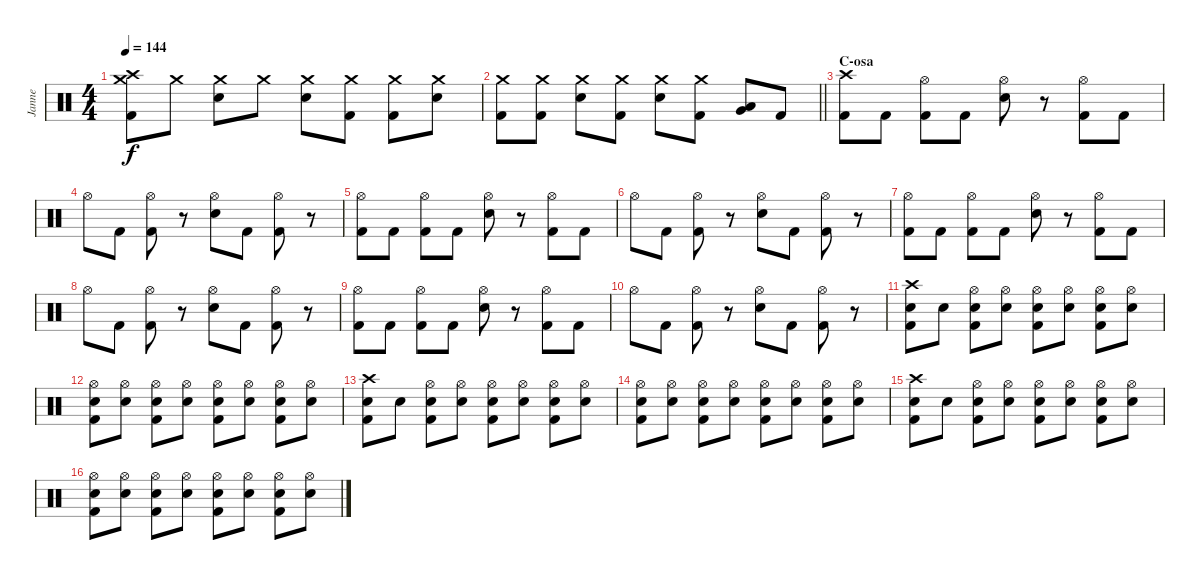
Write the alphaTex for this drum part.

\track ("Janne" "Janne") {instrument percussion}
\staff {score}
\articulation defaults
\ts (4 4)
\tempo 144
\clef neutral
\ks c
("Crash medium (hit)" "Crash high (hit)" "Kick (hit) 2").8{dy f} "Crash medium (hit)".8 ("Crash medium (hit)" "Electric Snare (hit)").8 "Crash medium (hit)".8 ("Crash medium (hit)" "Electric Snare (hit)").8 ("Crash medium (hit)" "Kick (hit) 2").8 ("Crash medium (hit)" "Kick (hit) 2").8 ("Crash medium (hit)" "Electric Snare (hit)").8 |
\barLineRight lightlight
("Crash medium (hit)" "Kick (hit) 2").8 ("Crash medium (hit)" "Kick (hit) 2").8 ("Crash medium (hit)" "Electric Snare (hit)").8 ("Crash medium (hit)" "Kick (hit) 2").8 ("Crash medium (hit)" "Electric Snare (hit)").8 ("Crash medium (hit)" "Kick (hit) 2").8 ("Very Low Tom (hit)" "Low Floor Tom (hit)").8 "Kick (hit) 2".8 |
\section ("" "C-osa")
("Crash high (hit)" "Kick (hit) 2").8 "Kick (hit) 2".8 ("Hi-Hat (open)" "Kick (hit) 2").8 "Kick (hit) 2".8 ("Hi-Hat (open)" "Electric Snare (hit)").8 r.8 ("Hi-Hat (open)" "Kick (hit) 2").8 "Kick (hit) 2".8 |
"Hi-Hat (open)".8 "Kick (hit) 2".8 ("Hi-Hat (open)" "Kick (hit) 2").8 r.8 ("Hi-Hat (open)" "Electric Snare (hit)").8 "Kick (hit) 2".8 ("Hi-Hat (open)" "Kick (hit) 2").8 r.8 |
("Hi-Hat (open)" "Kick (hit) 2").8 "Kick (hit) 2".8 ("Hi-Hat (open)" "Kick (hit) 2").8 "Kick (hit) 2".8 ("Hi-Hat (open)" "Electric Snare (hit)").8 r.8 ("Hi-Hat (open)" "Kick (hit) 2").8 "Kick (hit) 2".8 |
"Hi-Hat (open)".8 "Kick (hit) 2".8 ("Hi-Hat (open)" "Kick (hit) 2").8 r.8 ("Hi-Hat (open)" "Electric Snare (hit)").8 "Kick (hit) 2".8 ("Hi-Hat (open)" "Kick (hit) 2").8 r.8 |
("Hi-Hat (open)" "Kick (hit) 2").8 "Kick (hit) 2".8 ("Hi-Hat (open)" "Kick (hit) 2").8 "Kick (hit) 2".8 ("Hi-Hat (open)" "Electric Snare (hit)").8 r.8 ("Hi-Hat (open)" "Kick (hit) 2").8 "Kick (hit) 2".8 |
"Hi-Hat (open)".8 "Kick (hit) 2".8 ("Hi-Hat (open)" "Kick (hit) 2").8 r.8 ("Hi-Hat (open)" "Electric Snare (hit)").8 "Kick (hit) 2".8 ("Hi-Hat (open)" "Kick (hit) 2").8 r.8 |
("Hi-Hat (open)" "Kick (hit) 2").8 "Kick (hit) 2".8 ("Hi-Hat (open)" "Kick (hit) 2").8 "Kick (hit) 2".8 ("Hi-Hat (open)" "Electric Snare (hit)").8 r.8 ("Hi-Hat (open)" "Kick (hit) 2").8 "Kick (hit) 2".8 |
"Hi-Hat (open)".8 "Kick (hit) 2".8 ("Hi-Hat (open)" "Kick (hit) 2").8 r.8 ("Hi-Hat (open)" "Electric Snare (hit)").8 "Kick (hit) 2".8 ("Hi-Hat (open)" "Kick (hit) 2").8 r.8 |
("Crash high (hit)" "Electric Snare (hit)" "Kick (hit) 2").8 "Electric Snare (hit)".8 ("Hi-Hat (open)" "Electric Snare (hit)" "Kick (hit) 2").8 ("Hi-Hat (open)" "Electric Snare (hit)").8 ("Hi-Hat (open)" "Electric Snare (hit)" "Kick (hit) 2").8 ("Hi-Hat (open)" "Electric Snare (hit)").8 ("Hi-Hat (open)" "Electric Snare (hit)" "Kick (hit) 2").8 ("Hi-Hat (open)" "Electric Snare (hit)").8 |
("Hi-Hat (open)" "Electric Snare (hit)" "Kick (hit) 2").8 ("Hi-Hat (open)" "Electric Snare (hit)").8 ("Hi-Hat (open)" "Electric Snare (hit)" "Kick (hit) 2").8 ("Hi-Hat (open)" "Electric Snare (hit)").8 ("Hi-Hat (open)" "Electric Snare (hit)" "Kick (hit) 2").8 ("Hi-Hat (open)" "Electric Snare (hit)").8 ("Hi-Hat (open)" "Electric Snare (hit)" "Kick (hit) 2").8 ("Hi-Hat (open)" "Electric Snare (hit)").8 |
("Crash high (hit)" "Electric Snare (hit)" "Kick (hit) 2").8 "Electric Snare (hit)".8 ("Hi-Hat (open)" "Electric Snare (hit)" "Kick (hit) 2").8 ("Hi-Hat (open)" "Electric Snare (hit)").8 ("Hi-Hat (open)" "Electric Snare (hit)" "Kick (hit) 2").8 ("Hi-Hat (open)" "Electric Snare (hit)").8 ("Hi-Hat (open)" "Electric Snare (hit)" "Kick (hit) 2").8 ("Hi-Hat (open)" "Electric Snare (hit)").8 |
("Hi-Hat (open)" "Electric Snare (hit)" "Kick (hit) 2").8 ("Hi-Hat (open)" "Electric Snare (hit)").8 ("Hi-Hat (open)" "Electric Snare (hit)" "Kick (hit) 2").8 ("Hi-Hat (open)" "Electric Snare (hit)").8 ("Hi-Hat (open)" "Electric Snare (hit)" "Kick (hit) 2").8 ("Hi-Hat (open)" "Electric Snare (hit)").8 ("Hi-Hat (open)" "Electric Snare (hit)" "Kick (hit) 2").8 ("Hi-Hat (open)" "Electric Snare (hit)").8 |
("Crash high (hit)" "Electric Snare (hit)" "Kick (hit) 2").8 "Electric Snare (hit)".8 ("Hi-Hat (open)" "Electric Snare (hit)" "Kick (hit) 2").8 ("Hi-Hat (open)" "Electric Snare (hit)").8 ("Hi-Hat (open)" "Electric Snare (hit)" "Kick (hit) 2").8 ("Hi-Hat (open)" "Electric Snare (hit)").8 ("Hi-Hat (open)" "Electric Snare (hit)" "Kick (hit) 2").8 ("Hi-Hat (open)" "Electric Snare (hit)").8 |
("Hi-Hat (open)" "Electric Snare (hit)" "Kick (hit) 2").8 ("Hi-Hat (open)" "Electric Snare (hit)").8 ("Hi-Hat (open)" "Electric Snare (hit)" "Kick (hit) 2").8 ("Hi-Hat (open)" "Electric Snare (hit)").8 ("Hi-Hat (open)" "Electric Snare (hit)" "Kick (hit) 2").8 ("Hi-Hat (open)" "Electric Snare (hit)").8 ("Hi-Hat (open)" "Electric Snare (hit)" "Kick (hit) 2").8 ("Hi-Hat (open)" "Electric Snare (hit)").8
